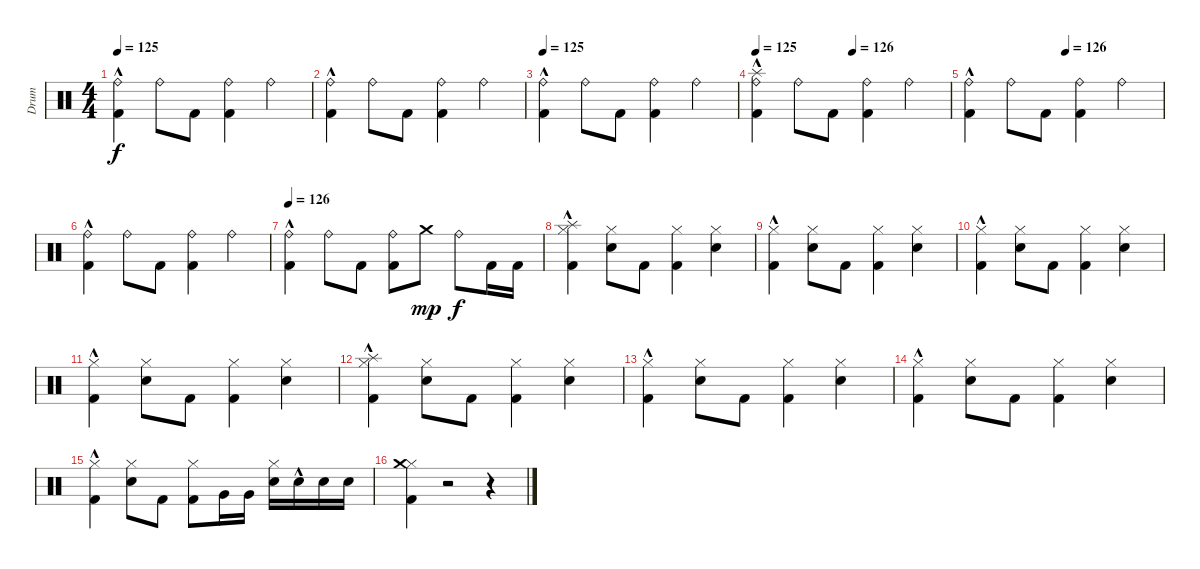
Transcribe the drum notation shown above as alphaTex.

\track ("Drum" "Drum") {instrument percussion}
\staff {score}
\articulation defaults
\ts (4 4)
\tempo 125
\clef neutral
\ks c
("Ride (bell)" "Kick (hit) 2"{hac}).4{dy f} "Ride (bell)".8 "Kick (hit) 2".8 ("Ride (bell)" "Kick (hit) 2").4 "Ride (bell)".4 |
("Ride (bell)" "Kick (hit) 2"{hac}).4 "Ride (bell)".8 "Kick (hit) 2".8 ("Ride (bell)" "Kick (hit) 2").4 "Ride (bell)".4 |
\tempo 125
("Kick (hit) 2"{hac} "Ride (bell)").4 "Ride (bell)".8 "Kick (hit) 2".8 ("Ride (bell)" "Kick (hit) 2").4 "Ride (bell)".4 |
\tempo 125
\tempo (126 0.5)
("Splash (hit)" "Kick (hit) 2"{hac} "Ride (bell)").4 "Ride (bell)".8 "Kick (hit) 2".8 ("Ride (bell)" "Kick (hit) 2").4 "Ride (bell)".4 |
\tempo (126 0.5)
("Kick (hit) 2"{hac} "Ride (bell)").4 "Ride (bell)".8 "Kick (hit) 2".8 ("Kick (hit) 2" "Ride (bell)").4 "Ride (bell)".4 |
("Kick (hit) 2"{hac} "Ride (bell)").4 "Ride (bell)".8 "Kick (hit) 2".8 ("Kick (hit) 2" "Ride (bell)").4 "Ride (bell)".4 |
\tempo 126
("Ride (bell)" "Kick (hit) 2"{hac}).4 "Ride (bell)".8 "Kick (hit) 2".8 ("Ride (bell)" "Kick (hit) 2").8 "Crash medium (hit)".8{dy mp} "Ride (bell)".8{dy f} "Kick (hit) 2".16 "Kick (hit) 2".16 |
("Hi-Hat (closed)" "Splash (hit)" "Kick (hit) 2"{hac}).4 ("Electric Snare (hit)" "Hi-Hat (closed)").8 "Kick (hit) 2".8 ("Hi-Hat (closed)" "Kick (hit) 2").4 ("Electric Snare (hit)" "Hi-Hat (closed)").4 |
("Hi-Hat (closed)" "Kick (hit) 2"{hac}).4 ("Hi-Hat (closed)" "Electric Snare (hit)").8 "Kick (hit) 2".8 ("Hi-Hat (closed)" "Kick (hit) 2").4 ("Hi-Hat (closed)" "Electric Snare (hit)").4 |
("Hi-Hat (closed)" "Kick (hit) 2"{hac}).4 ("Hi-Hat (closed)" "Electric Snare (hit)").8 "Kick (hit) 2".8 ("Hi-Hat (closed)" "Kick (hit) 2").4 ("Hi-Hat (closed)" "Electric Snare (hit)").4 |
("Hi-Hat (closed)" "Kick (hit) 2"{hac}).4 ("Hi-Hat (closed)" "Electric Snare (hit)").8 "Kick (hit) 2".8 ("Hi-Hat (closed)" "Kick (hit) 2").4 ("Hi-Hat (closed)" "Electric Snare (hit)").4 |
("Hi-Hat (closed)" "Splash (hit)" "Kick (hit) 2"{hac}).4 ("Electric Snare (hit)" "Hi-Hat (closed)").8 "Kick (hit) 2".8 ("Hi-Hat (closed)" "Kick (hit) 2").4 ("Electric Snare (hit)" "Hi-Hat (closed)").4 |
("Hi-Hat (closed)" "Kick (hit) 2"{hac}).4 ("Hi-Hat (closed)" "Electric Snare (hit)").8 "Kick (hit) 2".8 ("Hi-Hat (closed)" "Kick (hit) 2").4 ("Hi-Hat (closed)" "Electric Snare (hit)").4 |
("Hi-Hat (closed)" "Kick (hit) 2"{hac}).4 ("Hi-Hat (closed)" "Electric Snare (hit)").8 "Kick (hit) 2".8 ("Hi-Hat (closed)" "Kick (hit) 2").4 ("Hi-Hat (closed)" "Electric Snare (hit)").4 |
("Hi-Hat (closed)" "Kick (hit) 2"{hac}).4 ("Hi-Hat (closed)" "Electric Snare (hit)").8 "Kick (hit) 2".8 ("Hi-Hat (closed)" "Kick (hit) 2").8 "Very Low Tom (hit)".16 "Very Low Tom (hit)".16 ("Hi-Hat (closed)" "Electric Snare (hit)").16 "Electric Snare (hit)"{hac}.16 "Snare (hit) 2".16 "Snare (hit) 2".16 |
("Hi-Hat (closed)" "Kick (hit) 2" "Crash medium (hit)").4 r.2 r.4
